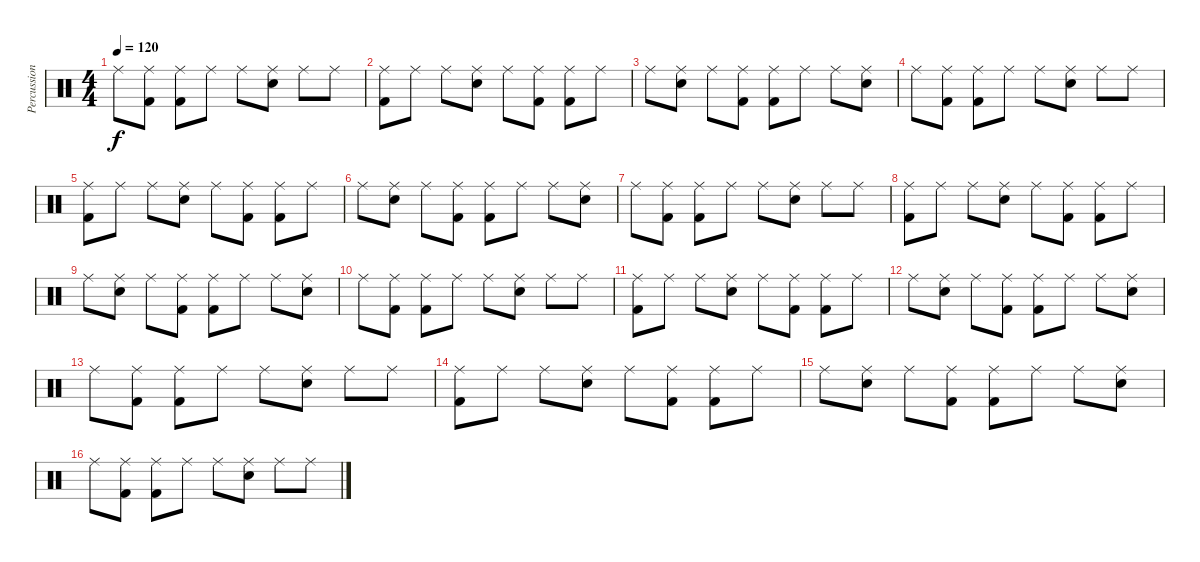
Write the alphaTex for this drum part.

\track ("Percussions" "Percussion") {instrument percussion}
\staff {score}
\articulation defaults
\ts (4 4)
\tempo 120
\clef neutral
\ks c "Ride (middle)".8{dy f}
("Kick (hit) 2" "Ride (middle)").8 ("Kick (hit) 2" "Ride (middle)").8 "Ride (middle)".8 "Ride (middle)".8 ("Electric Snare (hit)" "Ride (middle)").8 "Ride (middle)".8 "Ride (middle)".8 |
("Kick (hit) 2" "Ride (middle)").8 "Ride (middle)".8 "Ride (middle)".8 ("Electric Snare (hit)" "Ride (middle)").8 "Ride (middle)".8 ("Kick (hit) 2" "Ride (middle)").8 ("Kick (hit) 2" "Ride (middle)").8 "Ride (middle)".8 |
"Ride (middle)".8 ("Electric Snare (hit)" "Ride (middle)").8 "Ride (middle)".8 ("Kick (hit) 2" "Ride (middle)").8 ("Kick (hit) 2" "Ride (middle)").8 "Ride (middle)".8 "Ride (middle)".8 ("Electric Snare (hit)" "Ride (middle)").8 |
"Ride (middle)".8 ("Kick (hit) 2" "Ride (middle)").8 ("Kick (hit) 2" "Ride (middle)").8 "Ride (middle)".8 "Ride (middle)".8 ("Electric Snare (hit)" "Ride (middle)").8 "Ride (middle)".8 "Ride (middle)".8 |
("Kick (hit) 2" "Ride (middle)").8 "Ride (middle)".8 "Ride (middle)".8 ("Electric Snare (hit)" "Ride (middle)").8 "Ride (middle)".8 ("Kick (hit) 2" "Ride (middle)").8 ("Kick (hit) 2" "Ride (middle)").8 "Ride (middle)".8 |
"Ride (middle)".8 ("Electric Snare (hit)" "Ride (middle)").8 "Ride (middle)".8 ("Kick (hit) 2" "Ride (middle)").8 ("Kick (hit) 2" "Ride (middle)").8 "Ride (middle)".8 "Ride (middle)".8 ("Electric Snare (hit)" "Ride (middle)").8 |
"Ride (middle)".8 ("Kick (hit) 2" "Ride (middle)").8 ("Kick (hit) 2" "Ride (middle)").8 "Ride (middle)".8 "Ride (middle)".8 ("Electric Snare (hit)" "Ride (middle)").8 "Ride (middle)".8 "Ride (middle)".8 |
("Kick (hit) 2" "Ride (middle)").8 "Ride (middle)".8 "Ride (middle)".8 ("Electric Snare (hit)" "Ride (middle)").8 "Ride (middle)".8 ("Kick (hit) 2" "Ride (middle)").8 ("Kick (hit) 2" "Ride (middle)").8 "Ride (middle)".8 |
"Ride (middle)".8 ("Electric Snare (hit)" "Ride (middle)").8 "Ride (middle)".8 ("Kick (hit) 2" "Ride (middle)").8 ("Kick (hit) 2" "Ride (middle)").8 "Ride (middle)".8 "Ride (middle)".8 ("Electric Snare (hit)" "Ride (middle)").8 |
"Ride (middle)".8 ("Kick (hit) 2" "Ride (middle)").8 ("Kick (hit) 2" "Ride (middle)").8 "Ride (middle)".8 "Ride (middle)".8 ("Electric Snare (hit)" "Ride (middle)").8 "Ride (middle)".8 "Ride (middle)".8 |
("Kick (hit) 2" "Ride (middle)").8 "Ride (middle)".8 "Ride (middle)".8 ("Electric Snare (hit)" "Ride (middle)").8 "Ride (middle)".8 ("Kick (hit) 2" "Ride (middle)").8 ("Kick (hit) 2" "Ride (middle)").8 "Ride (middle)".8 |
"Ride (middle)".8 ("Electric Snare (hit)" "Ride (middle)").8 "Ride (middle)".8 ("Kick (hit) 2" "Ride (middle)").8 ("Kick (hit) 2" "Ride (middle)").8 "Ride (middle)".8 "Ride (middle)".8 ("Electric Snare (hit)" "Ride (middle)").8 |
"Ride (middle)".8 ("Kick (hit) 2" "Ride (middle)").8 ("Kick (hit) 2" "Ride (middle)").8 "Ride (middle)".8 "Ride (middle)".8 ("Electric Snare (hit)" "Ride (middle)").8 "Ride (middle)".8 "Ride (middle)".8 |
("Kick (hit) 2" "Ride (middle)").8 "Ride (middle)".8 "Ride (middle)".8 ("Electric Snare (hit)" "Ride (middle)").8 "Ride (middle)".8 ("Kick (hit) 2" "Ride (middle)").8 ("Kick (hit) 2" "Ride (middle)").8 "Ride (middle)".8 |
"Ride (middle)".8 ("Electric Snare (hit)" "Ride (middle)").8 "Ride (middle)".8 ("Kick (hit) 2" "Ride (middle)").8 ("Kick (hit) 2" "Ride (middle)").8 "Ride (middle)".8 "Ride (middle)".8 ("Electric Snare (hit)" "Ride (middle)").8 |
"Ride (middle)".8 ("Kick (hit) 2" "Ride (middle)").8 ("Kick (hit) 2" "Ride (middle)").8 "Ride (middle)".8 "Ride (middle)".8 ("Electric Snare (hit)" "Ride (middle)").8 "Ride (middle)".8 "Ride (middle)".8
